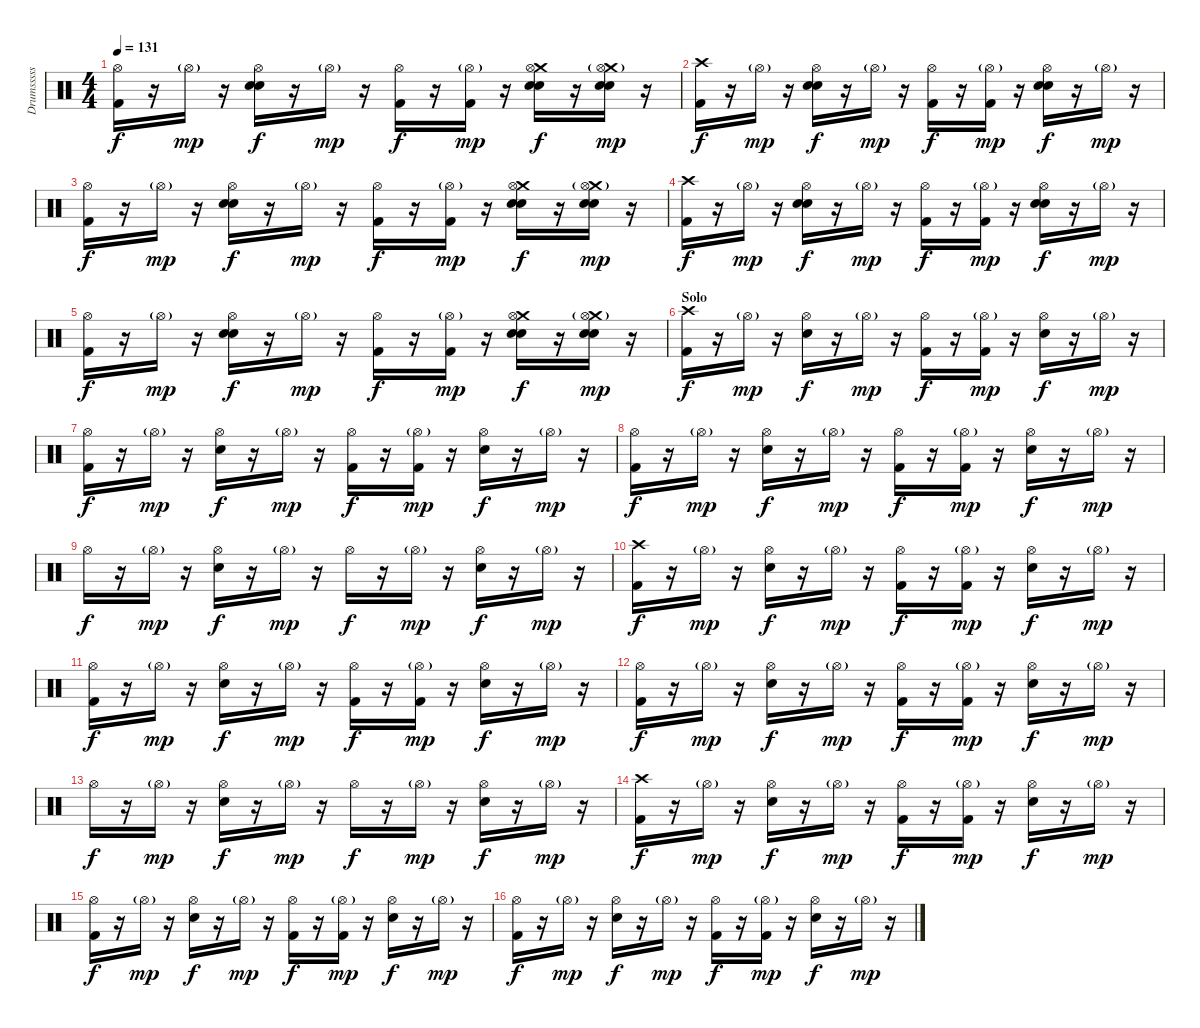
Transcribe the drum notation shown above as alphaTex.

\track ("Drumsssss" "Drumsssss") {instrument percussion}
\staff {score}
\articulation defaults
\ts (4 4)
\tempo 131
\clef neutral
\ks c
("Hi-Hat (open)" "Kick (hit) 2").16{dy f} r.16 "Hi-Hat (open)"{g}.16{dy mp} r.16 ("Hi-Hat (open)" "Hand Clap (hit)" "Hand Clap (hit)").16{dy f} r.16 "Hi-Hat (open)"{g}.16{dy mp} r.16 ("Hi-Hat (open)" "Kick (hit) 2").16{dy f} r.16 ("Hi-Hat (open)"{g} "Kick (hit) 2").16{dy mp} r.16 ("Crash medium (hit)" "Hi-Hat (open)" "Hand Clap (hit)" "Hand Clap (hit)").16{dy f} r.16 ("Crash medium (hit)" "Hi-Hat (open)"{g} "Hand Clap (hit)" "Hand Clap (hit)").16{dy mp} r.16 |
("Crash high (hit)" "Kick (hit) 2").16{dy f} r.16 "Hi-Hat (open)"{g}.16{dy mp} r.16 ("Hi-Hat (open)" "Hand Clap (hit)" "Hand Clap (hit)").16{dy f} r.16 "Hi-Hat (open)"{g}.16{dy mp} r.16 ("Hi-Hat (open)" "Kick (hit) 2").16{dy f} r.16 ("Hi-Hat (open)"{g} "Kick (hit) 2").16{dy mp} r.16 ("Hi-Hat (open)" "Hand Clap (hit)" "Hand Clap (hit)").16{dy f} r.16 "Hi-Hat (open)"{g}.16{dy mp} r.16 |
("Hi-Hat (open)" "Kick (hit) 2").16{dy f} r.16 "Hi-Hat (open)"{g}.16{dy mp} r.16 ("Hi-Hat (open)" "Hand Clap (hit)" "Hand Clap (hit)").16{dy f} r.16 "Hi-Hat (open)"{g}.16{dy mp} r.16 ("Hi-Hat (open)" "Kick (hit) 2").16{dy f} r.16 ("Hi-Hat (open)"{g} "Kick (hit) 2").16{dy mp} r.16 ("Crash medium (hit)" "Hi-Hat (open)" "Hand Clap (hit)" "Hand Clap (hit)").16{dy f} r.16 ("Crash medium (hit)" "Hi-Hat (open)"{g} "Hand Clap (hit)" "Hand Clap (hit)").16{dy mp} r.16 |
("Crash high (hit)" "Kick (hit) 2").16{dy f} r.16 "Hi-Hat (open)"{g}.16{dy mp} r.16 ("Hi-Hat (open)" "Hand Clap (hit)" "Hand Clap (hit)").16{dy f} r.16 "Hi-Hat (open)"{g}.16{dy mp} r.16 ("Hi-Hat (open)" "Kick (hit) 2").16{dy f} r.16 ("Hi-Hat (open)"{g} "Kick (hit) 2").16{dy mp} r.16 ("Hi-Hat (open)" "Hand Clap (hit)" "Hand Clap (hit)").16{dy f} r.16 "Hi-Hat (open)"{g}.16{dy mp} r.16 |
("Hi-Hat (open)" "Kick (hit) 2").16{dy f} r.16 "Hi-Hat (open)"{g}.16{dy mp} r.16 ("Hi-Hat (open)" "Hand Clap (hit)" "Hand Clap (hit)").16{dy f} r.16 "Hi-Hat (open)"{g}.16{dy mp} r.16 ("Hi-Hat (open)" "Kick (hit) 2").16{dy f} r.16 ("Hi-Hat (open)"{g} "Kick (hit) 2").16{dy mp} r.16 ("Crash medium (hit)" "Hi-Hat (open)" "Hand Clap (hit)" "Hand Clap (hit)").16{dy f} r.16 ("Crash medium (hit)" "Hi-Hat (open)"{g} "Hand Clap (hit)" "Hand Clap (hit)").16{dy mp} r.16 |
\section ("" "Solo")
("Crash high (hit)" "Kick (hit) 2").16{dy f} r.16 "Hi-Hat (open)"{g}.16{dy mp} r.16 ("Hi-Hat (open)" "Snare (hit) 2").16{dy f} r.16 "Hi-Hat (open)"{g}.16{dy mp} r.16 ("Hi-Hat (open)" "Kick (hit) 2").16{dy f} r.16 ("Hi-Hat (open)"{g} "Kick (hit) 2").16{dy mp} r.16 ("Hi-Hat (open)" "Snare (hit) 2").16{dy f} r.16 "Hi-Hat (open)"{g}.16{dy mp} r.16 |
("Hi-Hat (open)" "Kick (hit) 2").16{dy f} r.16 "Hi-Hat (open)"{g}.16{dy mp} r.16 ("Hi-Hat (open)" "Snare (hit) 2").16{dy f} r.16 "Hi-Hat (open)"{g}.16{dy mp} r.16 ("Hi-Hat (open)" "Kick (hit) 2").16{dy f} r.16 ("Hi-Hat (open)"{g} "Kick (hit) 2").16{dy mp} r.16 ("Hi-Hat (open)" "Snare (hit) 2").16{dy f} r.16 "Hi-Hat (open)"{g}.16{dy mp} r.16 |
("Hi-Hat (open)" "Kick (hit) 2").16{dy f} r.16 "Hi-Hat (open)"{g}.16{dy mp} r.16 ("Hi-Hat (open)" "Snare (hit) 2").16{dy f} r.16 "Hi-Hat (open)"{g}.16{dy mp} r.16 ("Hi-Hat (open)" "Kick (hit) 2").16{dy f} r.16 ("Hi-Hat (open)"{g} "Kick (hit) 2").16{dy mp} r.16 ("Hi-Hat (open)" "Snare (hit) 2").16{dy f} r.16 "Hi-Hat (open)"{g}.16{dy mp} r.16 |
"Hi-Hat (open)".16{dy f} r.16 "Hi-Hat (open)"{g}.16{dy mp} r.16 ("Hi-Hat (open)" "Snare (hit) 2").16{dy f} r.16 "Hi-Hat (open)"{g}.16{dy mp} r.16 "Hi-Hat (open)".16{dy f} r.16 "Hi-Hat (open)"{g}.16{dy mp} r.16 ("Hi-Hat (open)" "Snare (hit) 2").16{dy f} r.16 "Hi-Hat (open)"{g}.16{dy mp} r.16 |
("Crash high (hit)" "Kick (hit) 2").16{dy f} r.16 "Hi-Hat (open)"{g}.16{dy mp} r.16 ("Hi-Hat (open)" "Snare (hit) 2").16{dy f} r.16 "Hi-Hat (open)"{g}.16{dy mp} r.16 ("Hi-Hat (open)" "Kick (hit) 2").16{dy f} r.16 ("Hi-Hat (open)"{g} "Kick (hit) 2").16{dy mp} r.16 ("Hi-Hat (open)" "Snare (hit) 2").16{dy f} r.16 "Hi-Hat (open)"{g}.16{dy mp} r.16 |
("Hi-Hat (open)" "Kick (hit) 2").16{dy f} r.16 "Hi-Hat (open)"{g}.16{dy mp} r.16 ("Hi-Hat (open)" "Snare (hit) 2").16{dy f} r.16 "Hi-Hat (open)"{g}.16{dy mp} r.16 ("Hi-Hat (open)" "Kick (hit) 2").16{dy f} r.16 ("Hi-Hat (open)"{g} "Kick (hit) 2").16{dy mp} r.16 ("Hi-Hat (open)" "Snare (hit) 2").16{dy f} r.16 "Hi-Hat (open)"{g}.16{dy mp} r.16 |
("Hi-Hat (open)" "Kick (hit) 2").16{dy f} r.16 "Hi-Hat (open)"{g}.16{dy mp} r.16 ("Hi-Hat (open)" "Snare (hit) 2").16{dy f} r.16 "Hi-Hat (open)"{g}.16{dy mp} r.16 ("Hi-Hat (open)" "Kick (hit) 2").16{dy f} r.16 ("Hi-Hat (open)"{g} "Kick (hit) 2").16{dy mp} r.16 ("Hi-Hat (open)" "Snare (hit) 2").16{dy f} r.16 "Hi-Hat (open)"{g}.16{dy mp} r.16 |
"Hi-Hat (open)".16{dy f} r.16 "Hi-Hat (open)"{g}.16{dy mp} r.16 ("Hi-Hat (open)" "Snare (hit) 2").16{dy f} r.16 "Hi-Hat (open)"{g}.16{dy mp} r.16 "Hi-Hat (open)".16{dy f} r.16 "Hi-Hat (open)"{g}.16{dy mp} r.16 ("Hi-Hat (open)" "Snare (hit) 2").16{dy f} r.16 "Hi-Hat (open)"{g}.16{dy mp} r.16 |
("Crash high (hit)" "Kick (hit) 2").16{dy f} r.16 "Hi-Hat (open)"{g}.16{dy mp} r.16 ("Hi-Hat (open)" "Snare (hit) 2").16{dy f} r.16 "Hi-Hat (open)"{g}.16{dy mp} r.16 ("Hi-Hat (open)" "Kick (hit) 2").16{dy f} r.16 ("Hi-Hat (open)"{g} "Kick (hit) 2").16{dy mp} r.16 ("Hi-Hat (open)" "Snare (hit) 2").16{dy f} r.16 "Hi-Hat (open)"{g}.16{dy mp} r.16 |
("Hi-Hat (open)" "Kick (hit) 2").16{dy f} r.16 "Hi-Hat (open)"{g}.16{dy mp} r.16 ("Hi-Hat (open)" "Snare (hit) 2").16{dy f} r.16 "Hi-Hat (open)"{g}.16{dy mp} r.16 ("Hi-Hat (open)" "Kick (hit) 2").16{dy f} r.16 ("Hi-Hat (open)"{g} "Kick (hit) 2").16{dy mp} r.16 ("Hi-Hat (open)" "Snare (hit) 2").16{dy f} r.16 "Hi-Hat (open)"{g}.16{dy mp} r.16 |
("Hi-Hat (open)" "Kick (hit) 2").16{dy f} r.16 "Hi-Hat (open)"{g}.16{dy mp} r.16 ("Hi-Hat (open)" "Snare (hit) 2").16{dy f} r.16 "Hi-Hat (open)"{g}.16{dy mp} r.16 ("Hi-Hat (open)" "Kick (hit) 2").16{dy f} r.16 ("Hi-Hat (open)"{g} "Kick (hit) 2").16{dy mp} r.16 ("Hi-Hat (open)" "Snare (hit) 2").16{dy f} r.16 "Hi-Hat (open)"{g}.16{dy mp} r.16
